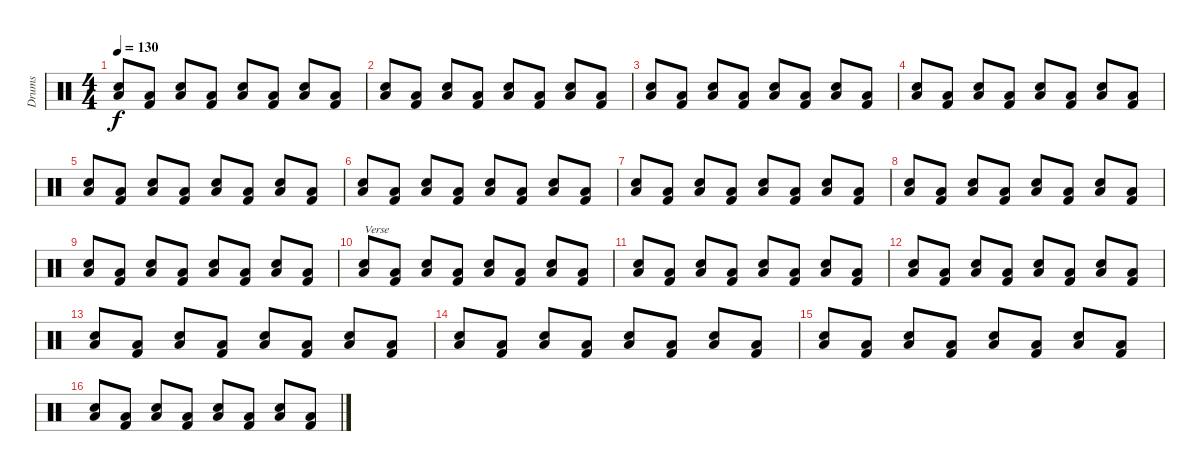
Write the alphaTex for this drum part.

\track ("Drums" "Drums") {instrument percussion}
\staff {score}
\articulation defaults
\ts (4 4)
\tempo 130
\clef neutral
\ks c
("Snare (hit) 2" "Low Floor Tom (hit)").8{dy f} ("Low Floor Tom (hit)" "Kick (hit) 2").8 ("Snare (hit) 2" "Low Floor Tom (hit)").8 ("Kick (hit) 2" "Low Floor Tom (hit)").8 ("Snare (hit) 2" "Low Floor Tom (hit)").8 ("Kick (hit) 2" "Low Floor Tom (hit)").8 ("Snare (hit) 2" "Low Floor Tom (hit)").8 ("Kick (hit) 2" "Low Floor Tom (hit)").8 |
("Snare (hit) 2" "Low Floor Tom (hit)").8 ("Low Floor Tom (hit)" "Kick (hit) 2").8 ("Snare (hit) 2" "Low Floor Tom (hit)").8 ("Kick (hit) 2" "Low Floor Tom (hit)").8 ("Snare (hit) 2" "Low Floor Tom (hit)").8 ("Kick (hit) 2" "Low Floor Tom (hit)").8 ("Snare (hit) 2" "Low Floor Tom (hit)").8 ("Kick (hit) 2" "Low Floor Tom (hit)").8 |
("Snare (hit) 2" "Low Floor Tom (hit)").8 ("Low Floor Tom (hit)" "Kick (hit) 2").8 ("Snare (hit) 2" "Low Floor Tom (hit)").8 ("Kick (hit) 2" "Low Floor Tom (hit)").8 ("Snare (hit) 2" "Low Floor Tom (hit)").8 ("Kick (hit) 2" "Low Floor Tom (hit)").8 ("Snare (hit) 2" "Low Floor Tom (hit)").8 ("Kick (hit) 2" "Low Floor Tom (hit)").8 |
("Snare (hit) 2" "Low Floor Tom (hit)").8 ("Low Floor Tom (hit)" "Kick (hit) 2").8 ("Snare (hit) 2" "Low Floor Tom (hit)").8 ("Kick (hit) 2" "Low Floor Tom (hit)").8 ("Snare (hit) 2" "Low Floor Tom (hit)").8 ("Kick (hit) 2" "Low Floor Tom (hit)").8 ("Snare (hit) 2" "Low Floor Tom (hit)").8 ("Kick (hit) 2" "Low Floor Tom (hit)").8 |
("Snare (hit) 2" "Low Floor Tom (hit)").8 ("Low Floor Tom (hit)" "Kick (hit) 2").8 ("Snare (hit) 2" "Low Floor Tom (hit)").8 ("Kick (hit) 2" "Low Floor Tom (hit)").8 ("Snare (hit) 2" "Low Floor Tom (hit)").8 ("Kick (hit) 2" "Low Floor Tom (hit)").8 ("Snare (hit) 2" "Low Floor Tom (hit)").8 ("Kick (hit) 2" "Low Floor Tom (hit)").8 |
("Snare (hit) 2" "Low Floor Tom (hit)").8 ("Low Floor Tom (hit)" "Kick (hit) 2").8 ("Snare (hit) 2" "Low Floor Tom (hit)").8 ("Kick (hit) 2" "Low Floor Tom (hit)").8 ("Snare (hit) 2" "Low Floor Tom (hit)").8 ("Kick (hit) 2" "Low Floor Tom (hit)").8 ("Snare (hit) 2" "Low Floor Tom (hit)").8 ("Kick (hit) 2" "Low Floor Tom (hit)").8 |
("Snare (hit) 2" "Low Floor Tom (hit)").8 ("Low Floor Tom (hit)" "Kick (hit) 2").8 ("Snare (hit) 2" "Low Floor Tom (hit)").8 ("Kick (hit) 2" "Low Floor Tom (hit)").8 ("Snare (hit) 2" "Low Floor Tom (hit)").8 ("Kick (hit) 2" "Low Floor Tom (hit)").8 ("Snare (hit) 2" "Low Floor Tom (hit)").8 ("Kick (hit) 2" "Low Floor Tom (hit)").8 |
("Snare (hit) 2" "Low Floor Tom (hit)").8 ("Low Floor Tom (hit)" "Kick (hit) 2").8 ("Snare (hit) 2" "Low Floor Tom (hit)").8 ("Kick (hit) 2" "Low Floor Tom (hit)").8 ("Snare (hit) 2" "Low Floor Tom (hit)").8 ("Kick (hit) 2" "Low Floor Tom (hit)").8 ("Snare (hit) 2" "Low Floor Tom (hit)").8 ("Kick (hit) 2" "Low Floor Tom (hit)").8 |
("Snare (hit) 2" "Low Floor Tom (hit)").8 ("Low Floor Tom (hit)" "Kick (hit) 2").8 ("Snare (hit) 2" "Low Floor Tom (hit)").8 ("Kick (hit) 2" "Low Floor Tom (hit)").8 ("Snare (hit) 2" "Low Floor Tom (hit)").8 ("Kick (hit) 2" "Low Floor Tom (hit)").8 ("Snare (hit) 2" "Low Floor Tom (hit)").8 ("Kick (hit) 2" "Low Floor Tom (hit)").8 |
("Snare (hit) 2" "Low Floor Tom (hit)").8{txt "Verse"} ("Low Floor Tom (hit)" "Kick (hit) 2").8 ("Snare (hit) 2" "Low Floor Tom (hit)").8 ("Kick (hit) 2" "Low Floor Tom (hit)").8 ("Snare (hit) 2" "Low Floor Tom (hit)").8 ("Kick (hit) 2" "Low Floor Tom (hit)").8 ("Snare (hit) 2" "Low Floor Tom (hit)").8 ("Kick (hit) 2" "Low Floor Tom (hit)").8 |
("Snare (hit) 2" "Low Floor Tom (hit)").8 ("Low Floor Tom (hit)" "Kick (hit) 2").8 ("Snare (hit) 2" "Low Floor Tom (hit)").8 ("Kick (hit) 2" "Low Floor Tom (hit)").8 ("Snare (hit) 2" "Low Floor Tom (hit)").8 ("Kick (hit) 2" "Low Floor Tom (hit)").8 ("Snare (hit) 2" "Low Floor Tom (hit)").8 ("Kick (hit) 2" "Low Floor Tom (hit)").8 |
("Snare (hit) 2" "Low Floor Tom (hit)").8 ("Low Floor Tom (hit)" "Kick (hit) 2").8 ("Snare (hit) 2" "Low Floor Tom (hit)").8 ("Kick (hit) 2" "Low Floor Tom (hit)").8 ("Snare (hit) 2" "Low Floor Tom (hit)").8 ("Kick (hit) 2" "Low Floor Tom (hit)").8 ("Snare (hit) 2" "Low Floor Tom (hit)").8 ("Kick (hit) 2" "Low Floor Tom (hit)").8 |
("Snare (hit) 2" "Low Floor Tom (hit)").8 ("Low Floor Tom (hit)" "Kick (hit) 2").8 ("Snare (hit) 2" "Low Floor Tom (hit)").8 ("Kick (hit) 2" "Low Floor Tom (hit)").8 ("Snare (hit) 2" "Low Floor Tom (hit)").8 ("Kick (hit) 2" "Low Floor Tom (hit)").8 ("Snare (hit) 2" "Low Floor Tom (hit)").8 ("Kick (hit) 2" "Low Floor Tom (hit)").8 |
("Snare (hit) 2" "Low Floor Tom (hit)").8 ("Low Floor Tom (hit)" "Kick (hit) 2").8 ("Snare (hit) 2" "Low Floor Tom (hit)").8 ("Kick (hit) 2" "Low Floor Tom (hit)").8 ("Snare (hit) 2" "Low Floor Tom (hit)").8 ("Kick (hit) 2" "Low Floor Tom (hit)").8 ("Snare (hit) 2" "Low Floor Tom (hit)").8 ("Kick (hit) 2" "Low Floor Tom (hit)").8 |
("Snare (hit) 2" "Low Floor Tom (hit)").8 ("Low Floor Tom (hit)" "Kick (hit) 2").8 ("Snare (hit) 2" "Low Floor Tom (hit)").8 ("Kick (hit) 2" "Low Floor Tom (hit)").8 ("Snare (hit) 2" "Low Floor Tom (hit)").8 ("Kick (hit) 2" "Low Floor Tom (hit)").8 ("Snare (hit) 2" "Low Floor Tom (hit)").8 ("Kick (hit) 2" "Low Floor Tom (hit)").8 |
("Snare (hit) 2" "Low Floor Tom (hit)").8 ("Low Floor Tom (hit)" "Kick (hit) 2").8 ("Snare (hit) 2" "Low Floor Tom (hit)").8 ("Kick (hit) 2" "Low Floor Tom (hit)").8 ("Snare (hit) 2" "Low Floor Tom (hit)").8 ("Kick (hit) 2" "Low Floor Tom (hit)").8 ("Snare (hit) 2" "Low Floor Tom (hit)").8 ("Kick (hit) 2" "Low Floor Tom (hit)").8
